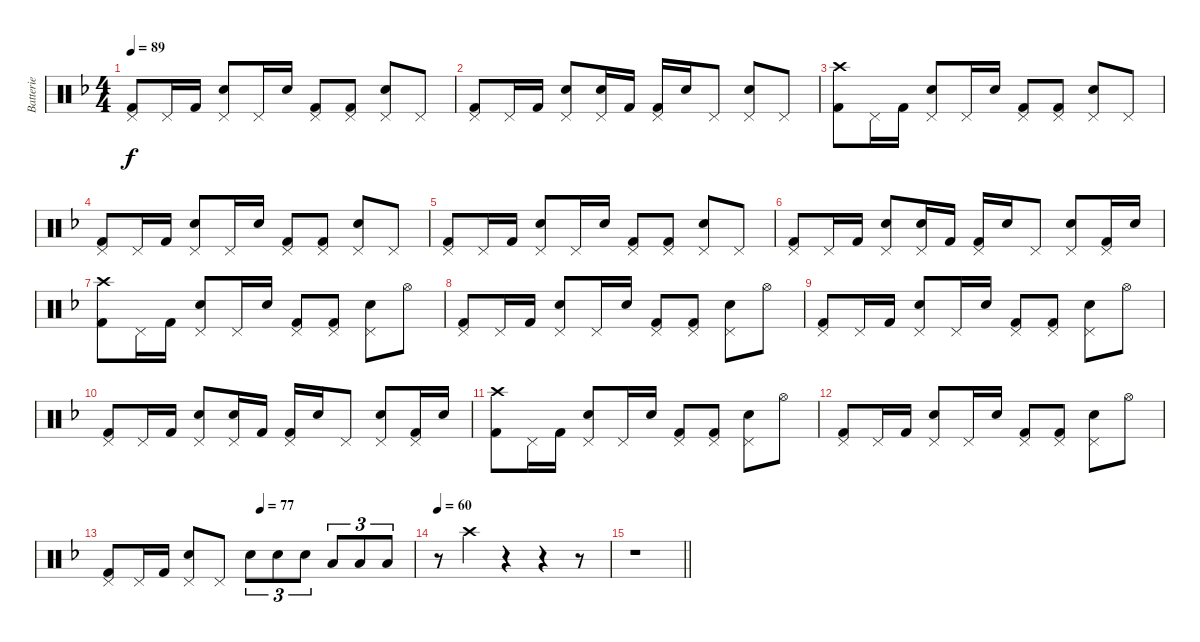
\track ("Batterie" "Batterie") {instrument percussion}
\staff {score}
\articulation defaults
\ts (4 4)
\tempo 89
\clef neutral
\ks f
("Pedal Hi-Hat (hit)" "Kick (hit) 2").8{dy f} "Pedal Hi-Hat (hit)".16 "Kick (hit) 2".16 ("Pedal Hi-Hat (hit)" "Electric Snare (hit)").8 "Pedal Hi-Hat (hit)".16 "Electric Snare (hit)".16 ("Pedal Hi-Hat (hit)" "Kick (hit) 2").8 ("Pedal Hi-Hat (hit)" "Kick (hit) 2").8 ("Pedal Hi-Hat (hit)" "Electric Snare (hit)").8 "Pedal Hi-Hat (hit)".8 |
("Pedal Hi-Hat (hit)" "Kick (hit) 2").8 "Pedal Hi-Hat (hit)".16 "Kick (hit) 2".16 ("Pedal Hi-Hat (hit)" "Electric Snare (hit)").8 ("Pedal Hi-Hat (hit)" "Electric Snare (hit)").16 "Kick (hit) 2".16 ("Pedal Hi-Hat (hit)" "Kick (hit) 2").16 "Electric Snare (hit)".16 "Pedal Hi-Hat (hit)".8 ("Pedal Hi-Hat (hit)" "Electric Snare (hit)").8 "Pedal Hi-Hat (hit)".8 |
("Crash high (hit)" "Kick (hit) 2").8 "Pedal Hi-Hat (hit)".16 "Kick (hit) 2".16 ("Pedal Hi-Hat (hit)" "Electric Snare (hit)").8 "Pedal Hi-Hat (hit)".16 "Electric Snare (hit)".16 ("Pedal Hi-Hat (hit)" "Kick (hit) 2").8 ("Pedal Hi-Hat (hit)" "Kick (hit) 2").8 ("Pedal Hi-Hat (hit)" "Electric Snare (hit)").8 "Pedal Hi-Hat (hit)".8 |
("Pedal Hi-Hat (hit)" "Kick (hit) 2").8 "Pedal Hi-Hat (hit)".16 "Kick (hit) 2".16 ("Pedal Hi-Hat (hit)" "Electric Snare (hit)").8 "Pedal Hi-Hat (hit)".16 "Electric Snare (hit)".16 ("Pedal Hi-Hat (hit)" "Kick (hit) 2").8 ("Pedal Hi-Hat (hit)" "Kick (hit) 2").8 ("Pedal Hi-Hat (hit)" "Electric Snare (hit)").8 "Pedal Hi-Hat (hit)".8 |
("Pedal Hi-Hat (hit)" "Kick (hit) 2").8 "Pedal Hi-Hat (hit)".16 "Kick (hit) 2".16 ("Pedal Hi-Hat (hit)" "Electric Snare (hit)").8 "Pedal Hi-Hat (hit)".16 "Electric Snare (hit)".16 ("Pedal Hi-Hat (hit)" "Kick (hit) 2").8 ("Pedal Hi-Hat (hit)" "Kick (hit) 2").8 ("Pedal Hi-Hat (hit)" "Electric Snare (hit)").8 "Pedal Hi-Hat (hit)".8 |
("Pedal Hi-Hat (hit)" "Kick (hit) 2").8 "Pedal Hi-Hat (hit)".16 "Kick (hit) 2".16 ("Pedal Hi-Hat (hit)" "Electric Snare (hit)").8 ("Pedal Hi-Hat (hit)" "Electric Snare (hit)").16 "Kick (hit) 2".16 ("Pedal Hi-Hat (hit)" "Kick (hit) 2").16 "Electric Snare (hit)".16 "Pedal Hi-Hat (hit)".8 ("Pedal Hi-Hat (hit)" "Electric Snare (hit)").8 ("Pedal Hi-Hat (hit)" "Kick (hit) 2").16 "Electric Snare (hit)".16 |
("Crash high (hit)" "Kick (hit) 2").8 "Pedal Hi-Hat (hit)".16 "Kick (hit) 2".16 ("Pedal Hi-Hat (hit)" "Electric Snare (hit)").8 "Pedal Hi-Hat (hit)".16 "Electric Snare (hit)".16 ("Pedal Hi-Hat (hit)" "Kick (hit) 2").8 ("Pedal Hi-Hat (hit)" "Kick (hit) 2").8 ("Pedal Hi-Hat (hit)" "Electric Snare (hit)").8 "Hi-Hat (open)".8 |
("Pedal Hi-Hat (hit)" "Kick (hit) 2").8 "Pedal Hi-Hat (hit)".16 "Kick (hit) 2".16 ("Pedal Hi-Hat (hit)" "Electric Snare (hit)").8 "Pedal Hi-Hat (hit)".16 "Electric Snare (hit)".16 ("Pedal Hi-Hat (hit)" "Kick (hit) 2").8 ("Pedal Hi-Hat (hit)" "Kick (hit) 2").8 ("Pedal Hi-Hat (hit)" "Electric Snare (hit)").8 "Hi-Hat (open)".8 |
("Pedal Hi-Hat (hit)" "Kick (hit) 2").8 "Pedal Hi-Hat (hit)".16 "Kick (hit) 2".16 ("Pedal Hi-Hat (hit)" "Electric Snare (hit)").8 "Pedal Hi-Hat (hit)".16 "Electric Snare (hit)".16 ("Pedal Hi-Hat (hit)" "Kick (hit) 2").8 ("Pedal Hi-Hat (hit)" "Kick (hit) 2").8 ("Pedal Hi-Hat (hit)" "Electric Snare (hit)").8 "Hi-Hat (open)".8 |
("Pedal Hi-Hat (hit)" "Kick (hit) 2").8 "Pedal Hi-Hat (hit)".16 "Kick (hit) 2".16 ("Pedal Hi-Hat (hit)" "Electric Snare (hit)").8 ("Pedal Hi-Hat (hit)" "Electric Snare (hit)").16 "Kick (hit) 2".16 ("Pedal Hi-Hat (hit)" "Kick (hit) 2").16 "Electric Snare (hit)".16 "Pedal Hi-Hat (hit)".8 ("Pedal Hi-Hat (hit)" "Electric Snare (hit)").8 ("Pedal Hi-Hat (hit)" "Kick (hit) 2").16 "Electric Snare (hit)".16 |
("Crash high (hit)" "Kick (hit) 2").8 "Pedal Hi-Hat (hit)".16 "Kick (hit) 2".16 ("Pedal Hi-Hat (hit)" "Electric Snare (hit)").8 "Pedal Hi-Hat (hit)".16 "Electric Snare (hit)".16 ("Pedal Hi-Hat (hit)" "Kick (hit) 2").8 ("Pedal Hi-Hat (hit)" "Kick (hit) 2").8 ("Pedal Hi-Hat (hit)" "Electric Snare (hit)").8 "Hi-Hat (open)".8 |
("Pedal Hi-Hat (hit)" "Kick (hit) 2").8 "Pedal Hi-Hat (hit)".16 "Kick (hit) 2".16 ("Pedal Hi-Hat (hit)" "Electric Snare (hit)").8 "Pedal Hi-Hat (hit)".16 "Electric Snare (hit)".16 ("Pedal Hi-Hat (hit)" "Kick (hit) 2").8 ("Pedal Hi-Hat (hit)" "Kick (hit) 2").8 ("Pedal Hi-Hat (hit)" "Electric Snare (hit)").8 "Hi-Hat (open)".8 |
\tempo (77 0.5)
("Pedal Hi-Hat (hit)" "Kick (hit) 2").8 "Pedal Hi-Hat (hit)".16 "Kick (hit) 2".16 ("Pedal Hi-Hat (hit)" "Electric Snare (hit)").8 "Pedal Hi-Hat (hit)".8 "Electric Snare (hit)".8{tu (3 2)} "Electric Snare (hit)".8{tu (3 2)} "Electric Snare (hit)".8{tu (3 2)} "Low Tom (hit)".8{tu (3 2)} "Low Tom (hit)".8{tu (3 2)} "Low Tom (hit)".8{tu (3 2)} |
\tempo 60
r.8 "Crash high (hit)".4 r.4 r.4 r.8 |
\barLineRight lightlight
r.1
